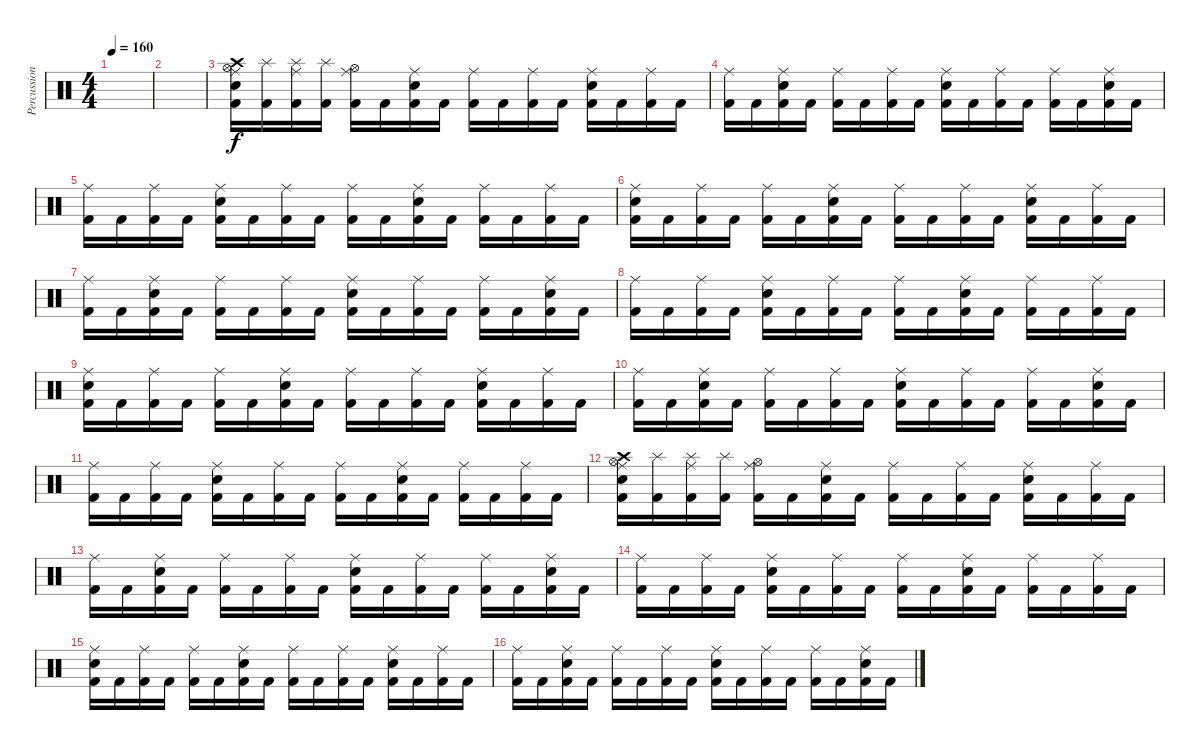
\track ("Percussions" "Percussion") {instrument percussion}
\staff {score}
\articulation defaults
\ts (4 4)
\tempo 160
\clef neutral
\ks c
|
|
("Kick (hit) 2" "Hi-Hat (open)" "Electric Snare (hit)" "Ride (middle)" "Crash high (hit)").16 ("Kick (hit) 2" "Splash (hit)").16 ("Kick (hit) 2" "Splash (hit)" "Ride (middle)").16 ("Kick (hit) 2" "Splash (hit)").16 ("Kick (hit) 2" "Hi-Hat (open)" "Ride (middle)").16 "Kick (hit) 2".16 ("Kick (hit) 2" "Electric Snare (hit)" "Ride (middle)").16 "Kick (hit) 2".16 ("Kick (hit) 2" "Ride (middle)").16 "Kick (hit) 2".16 ("Kick (hit) 2" "Ride (middle)").16 "Kick (hit) 2".16 ("Kick (hit) 2" "Electric Snare (hit)" "Ride (middle)").16 "Kick (hit) 2".16 ("Kick (hit) 2" "Ride (middle)").16 "Kick (hit) 2".16 |
("Kick (hit) 2" "Ride (middle)").16 "Kick (hit) 2".16 ("Kick (hit) 2" "Electric Snare (hit)" "Ride (middle)").16 "Kick (hit) 2".16 ("Kick (hit) 2" "Ride (middle)").16 "Kick (hit) 2".16 ("Kick (hit) 2" "Ride (middle)").16 "Kick (hit) 2".16 ("Kick (hit) 2" "Electric Snare (hit)" "Ride (middle)").16 "Kick (hit) 2".16 ("Kick (hit) 2" "Ride (middle)").16 "Kick (hit) 2".16 ("Kick (hit) 2" "Ride (middle)").16 "Kick (hit) 2".16 ("Kick (hit) 2" "Electric Snare (hit)" "Ride (middle)").16 "Kick (hit) 2".16 |
("Kick (hit) 2" "Ride (middle)").16 "Kick (hit) 2".16 ("Kick (hit) 2" "Ride (middle)").16 "Kick (hit) 2".16 ("Kick (hit) 2" "Electric Snare (hit)" "Ride (middle)").16 "Kick (hit) 2".16 ("Kick (hit) 2" "Ride (middle)").16 "Kick (hit) 2".16 ("Kick (hit) 2" "Ride (middle)").16 "Kick (hit) 2".16 ("Kick (hit) 2" "Electric Snare (hit)" "Ride (middle)").16 "Kick (hit) 2".16 ("Kick (hit) 2" "Ride (middle)").16 "Kick (hit) 2".16 ("Kick (hit) 2" "Ride (middle)").16 "Kick (hit) 2".16 |
("Kick (hit) 2" "Electric Snare (hit)" "Ride (middle)").16 "Kick (hit) 2".16 ("Kick (hit) 2" "Ride (middle)").16 "Kick (hit) 2".16 ("Kick (hit) 2" "Ride (middle)").16 "Kick (hit) 2".16 ("Kick (hit) 2" "Electric Snare (hit)" "Ride (middle)").16 "Kick (hit) 2".16 ("Kick (hit) 2" "Ride (middle)").16 "Kick (hit) 2".16 ("Kick (hit) 2" "Ride (middle)").16 "Kick (hit) 2".16 ("Kick (hit) 2" "Electric Snare (hit)" "Ride (middle)").16 "Kick (hit) 2".16 ("Kick (hit) 2" "Ride (middle)").16 "Kick (hit) 2".16 |
("Kick (hit) 2" "Ride (middle)").16 "Kick (hit) 2".16 ("Kick (hit) 2" "Electric Snare (hit)" "Ride (middle)").16 "Kick (hit) 2".16 ("Kick (hit) 2" "Ride (middle)").16 "Kick (hit) 2".16 ("Kick (hit) 2" "Ride (middle)").16 "Kick (hit) 2".16 ("Kick (hit) 2" "Electric Snare (hit)" "Ride (middle)").16 "Kick (hit) 2".16 ("Kick (hit) 2" "Ride (middle)").16 "Kick (hit) 2".16 ("Kick (hit) 2" "Ride (middle)").16 "Kick (hit) 2".16 ("Kick (hit) 2" "Electric Snare (hit)" "Ride (middle)").16 "Kick (hit) 2".16 |
("Kick (hit) 2" "Ride (middle)").16 "Kick (hit) 2".16 ("Kick (hit) 2" "Ride (middle)").16 "Kick (hit) 2".16 ("Kick (hit) 2" "Electric Snare (hit)" "Ride (middle)").16 "Kick (hit) 2".16 ("Kick (hit) 2" "Ride (middle)").16 "Kick (hit) 2".16 ("Kick (hit) 2" "Ride (middle)").16 "Kick (hit) 2".16 ("Kick (hit) 2" "Electric Snare (hit)" "Ride (middle)").16 "Kick (hit) 2".16 ("Kick (hit) 2" "Ride (middle)").16 "Kick (hit) 2".16 ("Kick (hit) 2" "Ride (middle)").16 "Kick (hit) 2".16 |
("Kick (hit) 2" "Electric Snare (hit)" "Ride (middle)").16 "Kick (hit) 2".16 ("Kick (hit) 2" "Ride (middle)").16 "Kick (hit) 2".16 ("Kick (hit) 2" "Ride (middle)").16 "Kick (hit) 2".16 ("Kick (hit) 2" "Electric Snare (hit)" "Ride (middle)").16 "Kick (hit) 2".16 ("Kick (hit) 2" "Ride (middle)").16 "Kick (hit) 2".16 ("Kick (hit) 2" "Ride (middle)").16 "Kick (hit) 2".16 ("Kick (hit) 2" "Electric Snare (hit)" "Ride (middle)").16 "Kick (hit) 2".16 ("Kick (hit) 2" "Ride (middle)").16 "Kick (hit) 2".16 |
("Kick (hit) 2" "Ride (middle)").16 "Kick (hit) 2".16 ("Kick (hit) 2" "Electric Snare (hit)" "Ride (middle)").16 "Kick (hit) 2".16 ("Kick (hit) 2" "Ride (middle)").16 "Kick (hit) 2".16 ("Kick (hit) 2" "Ride (middle)").16 "Kick (hit) 2".16 ("Kick (hit) 2" "Electric Snare (hit)" "Ride (middle)").16 "Kick (hit) 2".16 ("Kick (hit) 2" "Ride (middle)").16 "Kick (hit) 2".16 ("Kick (hit) 2" "Ride (middle)").16 "Kick (hit) 2".16 ("Kick (hit) 2" "Electric Snare (hit)" "Ride (middle)").16 "Kick (hit) 2".16 |
("Kick (hit) 2" "Ride (middle)").16 "Kick (hit) 2".16 ("Kick (hit) 2" "Ride (middle)").16 "Kick (hit) 2".16 ("Kick (hit) 2" "Electric Snare (hit)" "Ride (middle)").16 "Kick (hit) 2".16 ("Kick (hit) 2" "Ride (middle)").16 "Kick (hit) 2".16 ("Kick (hit) 2" "Ride (middle)").16 "Kick (hit) 2".16 ("Kick (hit) 2" "Electric Snare (hit)" "Ride (middle)").16 "Kick (hit) 2".16 ("Kick (hit) 2" "Ride (middle)").16 "Kick (hit) 2".16 ("Kick (hit) 2" "Ride (middle)").16 "Kick (hit) 2".16 |
("Kick (hit) 2" "Hi-Hat (open)" "Electric Snare (hit)" "Ride (middle)" "Crash high (hit)").16 ("Kick (hit) 2" "Splash (hit)").16 ("Kick (hit) 2" "Splash (hit)" "Ride (middle)").16 ("Kick (hit) 2" "Splash (hit)").16 ("Kick (hit) 2" "Hi-Hat (open)" "Ride (middle)").16 "Kick (hit) 2".16 ("Kick (hit) 2" "Electric Snare (hit)" "Ride (middle)").16 "Kick (hit) 2".16 ("Kick (hit) 2" "Ride (middle)").16 "Kick (hit) 2".16 ("Kick (hit) 2" "Ride (middle)").16 "Kick (hit) 2".16 ("Kick (hit) 2" "Electric Snare (hit)" "Ride (middle)").16 "Kick (hit) 2".16 ("Kick (hit) 2" "Ride (middle)").16 "Kick (hit) 2".16 |
("Kick (hit) 2" "Ride (middle)").16 "Kick (hit) 2".16 ("Kick (hit) 2" "Electric Snare (hit)" "Ride (middle)").16 "Kick (hit) 2".16 ("Kick (hit) 2" "Ride (middle)").16 "Kick (hit) 2".16 ("Kick (hit) 2" "Ride (middle)").16 "Kick (hit) 2".16 ("Kick (hit) 2" "Electric Snare (hit)" "Ride (middle)").16 "Kick (hit) 2".16 ("Kick (hit) 2" "Ride (middle)").16 "Kick (hit) 2".16 ("Kick (hit) 2" "Ride (middle)").16 "Kick (hit) 2".16 ("Kick (hit) 2" "Electric Snare (hit)" "Ride (middle)").16 "Kick (hit) 2".16 |
("Kick (hit) 2" "Ride (middle)").16 "Kick (hit) 2".16 ("Kick (hit) 2" "Ride (middle)").16 "Kick (hit) 2".16 ("Kick (hit) 2" "Electric Snare (hit)" "Ride (middle)").16 "Kick (hit) 2".16 ("Kick (hit) 2" "Ride (middle)").16 "Kick (hit) 2".16 ("Kick (hit) 2" "Ride (middle)").16 "Kick (hit) 2".16 ("Kick (hit) 2" "Electric Snare (hit)" "Ride (middle)").16 "Kick (hit) 2".16 ("Kick (hit) 2" "Ride (middle)").16 "Kick (hit) 2".16 ("Kick (hit) 2" "Ride (middle)").16 "Kick (hit) 2".16 |
("Kick (hit) 2" "Electric Snare (hit)" "Ride (middle)").16 "Kick (hit) 2".16 ("Kick (hit) 2" "Ride (middle)").16 "Kick (hit) 2".16 ("Kick (hit) 2" "Ride (middle)").16 "Kick (hit) 2".16 ("Kick (hit) 2" "Electric Snare (hit)" "Ride (middle)").16 "Kick (hit) 2".16 ("Kick (hit) 2" "Ride (middle)").16 "Kick (hit) 2".16 ("Kick (hit) 2" "Ride (middle)").16 "Kick (hit) 2".16 ("Kick (hit) 2" "Electric Snare (hit)" "Ride (middle)").16 "Kick (hit) 2".16 ("Kick (hit) 2" "Ride (middle)").16 "Kick (hit) 2".16 |
("Kick (hit) 2" "Ride (middle)").16 "Kick (hit) 2".16 ("Kick (hit) 2" "Electric Snare (hit)" "Ride (middle)").16 "Kick (hit) 2".16 ("Kick (hit) 2" "Ride (middle)").16 "Kick (hit) 2".16 ("Kick (hit) 2" "Ride (middle)").16 "Kick (hit) 2".16 ("Kick (hit) 2" "Electric Snare (hit)" "Ride (middle)").16 "Kick (hit) 2".16 ("Kick (hit) 2" "Ride (middle)").16 "Kick (hit) 2".16 ("Kick (hit) 2" "Ride (middle)").16 "Kick (hit) 2".16 ("Kick (hit) 2" "Electric Snare (hit)" "Ride (middle)").16 "Kick (hit) 2".16
